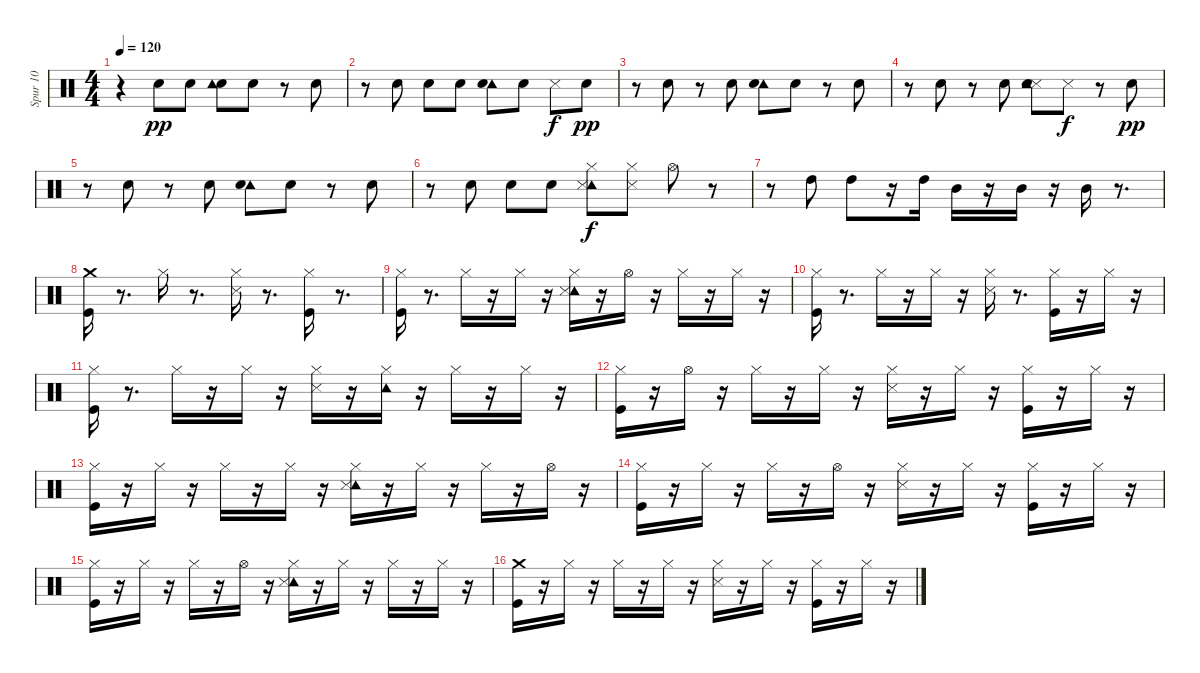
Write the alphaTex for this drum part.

\track ("Spur 10" "Spur 10") {instrument percussion}
\staff {score}
\articulation defaults
\ts (4 4)
\tempo 120
\clef neutral
\ks c
r.4{dy f} "Snare (hit)".8{dy pp} "Snare (hit)".8 ("Snare (hit)" "Tambourine (hit)").8 "Snare (hit)".8 r.8 "Snare (hit)".8 |
r.8 "Snare (hit)".8 "Snare (hit)".8 "Snare (hit)".8 ("Tambourine (hit)" "Snare (hit)").8 "Snare (hit)".8 "Snare (side stick) 3".8{dy f} "Snare (hit)".8{dy pp} |
r.8 "Snare (hit)".8 r.8 "Snare (hit)".8 ("Tambourine (hit)" "Snare (hit)").8 "Snare (hit)".8 r.8 "Snare (hit)".8 |
r.8 "Snare (hit)".8 r.8 "Snare (hit)".8 ("Snare (side stick) 3" "Tambourine (hit)" "Snare (hit)").8 "Snare (side stick) 3".8{dy f} r.8 "Snare (hit)".8{dy pp} |
r.8 "Snare (hit)".8 r.8 "Snare (hit)".8 ("Tambourine (hit)" "Snare (hit)").8 "Snare (hit)".8 r.8 "Snare (hit)".8 |
r.8 "Snare (hit)".8 "Snare (hit)".8 "Snare (hit)".8 ("Hi-Hat (closed)" "Tambourine (hit)" "Snare (side stick) 3").8{dy f} ("Hi-Hat (closed)" "Snare (side stick) 3").8 "Hi-Hat (open)".8 r.8 |
r.8 "High Tom (hit)".8 "High Tom (hit)".8 r.16 "High Tom (hit)".16 "Mid Tom (hit)".16 r.16 "Mid Tom (hit)".16 r.16 "Mid Tom (hit)".16 r.8{d} |
("Crash medium (hit)" "Kick (hit)").16 r.8{d} "Hi-Hat (closed)".16 r.8{d} ("Snare (side stick) 3" "Hi-Hat (closed)").16 r.8{d} ("Kick (hit)" "Hi-Hat (closed)").16 r.8{d} |
("Hi-Hat (closed)" "Kick (hit)").16 r.8{d} "Hi-Hat (closed)".16 r.16 "Hi-Hat (closed)".16 r.16 ("Tambourine (hit)" "Snare (side stick) 3" "Hi-Hat (closed)").16 r.16 "Hi-Hat (open)".16 r.16 "Hi-Hat (closed)".16 r.16 "Hi-Hat (closed)".16 r.16 |
("Kick (hit)" "Hi-Hat (closed)").16 r.8{d} "Hi-Hat (closed)".16 r.16 "Hi-Hat (closed)".16 r.16 ("Snare (side stick) 3" "Hi-Hat (closed)").16 r.8{d} ("Kick (hit)" "Hi-Hat (closed)").16 r.16 "Hi-Hat (closed)".16 r.16 |
("Kick (hit)" "Hi-Hat (closed)").16 r.8{d} "Hi-Hat (closed)".16 r.16 "Hi-Hat (closed)".16 r.16 ("Snare (side stick) 3" "Hi-Hat (closed)").16 r.16 ("Tambourine (hit)" "Hi-Hat (closed)").16 r.16 "Hi-Hat (closed)".16 r.16 "Hi-Hat (closed)".16 r.16 |
("Kick (hit)" "Hi-Hat (closed)").16 r.16 "Hi-Hat (open)".16 r.16 "Hi-Hat (closed)".16 r.16 "Hi-Hat (closed)".16 r.16 ("Snare (side stick) 3" "Hi-Hat (closed)").16 r.16 "Hi-Hat (closed)".16 r.16 ("Kick (hit)" "Hi-Hat (closed)").16 r.16 "Hi-Hat (closed)".16 r.16 |
("Kick (hit)" "Hi-Hat (closed)").16 r.16 "Hi-Hat (closed)".16 r.16 "Hi-Hat (closed)".16 r.16 "Hi-Hat (closed)".16 r.16 ("Tambourine (hit)" "Snare (side stick) 3" "Hi-Hat (closed)").16 r.16 "Hi-Hat (closed)".16 r.16 "Hi-Hat (closed)".16 r.16 "Hi-Hat (open)".16 r.16 |
("Kick (hit)" "Hi-Hat (closed)").16 r.16 "Hi-Hat (closed)".16 r.16 "Hi-Hat (closed)".16 r.16 "Hi-Hat (open)".16 r.16 ("Snare (side stick) 3" "Hi-Hat (closed)").16 r.16 "Hi-Hat (closed)".16 r.16 ("Kick (hit)" "Hi-Hat (closed)").16 r.16 "Hi-Hat (closed)".16 r.16 |
("Kick (hit)" "Hi-Hat (closed)").16 r.16 "Hi-Hat (closed)".16 r.16 "Hi-Hat (closed)".16 r.16 "Hi-Hat (open)".16 r.16 ("Tambourine (hit)" "Snare (side stick) 3" "Hi-Hat (closed)").16 r.16 "Hi-Hat (closed)".16 r.16 "Hi-Hat (closed)".16 r.16 "Hi-Hat (closed)".16 r.16 |
("Crash medium (hit)" "Kick (hit)").16 r.16 "Hi-Hat (closed)".16 r.16 "Hi-Hat (closed)".16 r.16 "Hi-Hat (closed)".16 r.16 ("Snare (side stick) 3" "Hi-Hat (closed)").16 r.16 "Hi-Hat (closed)".16 r.16 ("Kick (hit)" "Hi-Hat (closed)").16 r.16 "Hi-Hat (closed)".16 r.16
